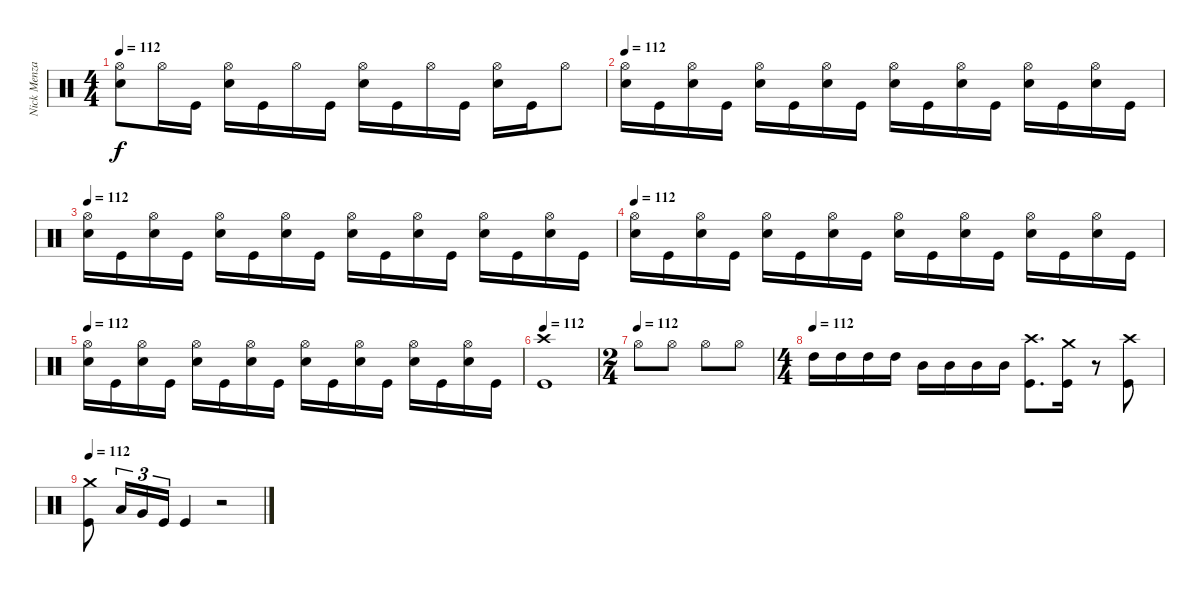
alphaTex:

\track ("Nick Menza" "Nick Menza") {instrument percussion}
\staff {score}
\articulation defaults
\ts (4 4)
\tempo 112
\clef neutral
\ks c
("Hi-Hat (open)" "Snare (hit) 2").8{dy f} "Hi-Hat (open)".16 "Kick (hit)".16 ("Hi-Hat (open)" "Snare (hit) 2").16 "Kick (hit)".16 "Hi-Hat (open)".16 "Kick (hit)".16 ("Hi-Hat (open)" "Snare (hit) 2").16 "Kick (hit)".16 "Hi-Hat (open)".16 "Kick (hit)".16 ("Hi-Hat (open)" "Snare (hit) 2").16 "Kick (hit)".16 "Hi-Hat (open)".8 |
\tempo 112
("Hi-Hat (open)" "Snare (hit) 2").16 "Kick (hit)".16 ("Hi-Hat (open)" "Snare (hit) 2").16 "Kick (hit)".16 ("Hi-Hat (open)" "Snare (hit) 2").16 "Kick (hit)".16 ("Hi-Hat (open)" "Snare (hit) 2").16 "Kick (hit)".16 ("Hi-Hat (open)" "Snare (hit) 2").16 "Kick (hit)".16 ("Hi-Hat (open)" "Snare (hit) 2").16 "Kick (hit)".16 ("Hi-Hat (open)" "Snare (hit) 2").16 "Kick (hit)".16 ("Hi-Hat (open)" "Snare (hit) 2").16 "Kick (hit)".16 |
\tempo 112
("Hi-Hat (open)" "Snare (hit) 2").16 "Kick (hit)".16 ("Hi-Hat (open)" "Snare (hit) 2").16 "Kick (hit)".16 ("Hi-Hat (open)" "Snare (hit) 2").16 "Kick (hit)".16 ("Hi-Hat (open)" "Snare (hit) 2").16 "Kick (hit)".16 ("Hi-Hat (open)" "Snare (hit) 2").16 "Kick (hit)".16 ("Hi-Hat (open)" "Snare (hit) 2").16 "Kick (hit)".16 ("Hi-Hat (open)" "Snare (hit) 2").16 "Kick (hit)".16 ("Hi-Hat (open)" "Snare (hit) 2").16 "Kick (hit)".16 |
\tempo 112
("Hi-Hat (open)" "Snare (hit) 2").16 "Kick (hit)".16 ("Hi-Hat (open)" "Snare (hit) 2").16 "Kick (hit)".16 ("Hi-Hat (open)" "Snare (hit) 2").16 "Kick (hit)".16 ("Hi-Hat (open)" "Snare (hit) 2").16 "Kick (hit)".16 ("Hi-Hat (open)" "Snare (hit) 2").16 "Kick (hit)".16 ("Hi-Hat (open)" "Snare (hit) 2").16 "Kick (hit)".16 ("Hi-Hat (open)" "Snare (hit) 2").16 "Kick (hit)".16 ("Hi-Hat (open)" "Snare (hit) 2").16 "Kick (hit)".16 |
\tempo 112
("Hi-Hat (open)" "Snare (hit) 2").16 "Kick (hit)".16 ("Hi-Hat (open)" "Snare (hit) 2").16 "Kick (hit)".16 ("Hi-Hat (open)" "Snare (hit) 2").16 "Kick (hit)".16 ("Hi-Hat (open)" "Snare (hit) 2").16 "Kick (hit)".16 ("Hi-Hat (open)" "Snare (hit) 2").16 "Kick (hit)".16 ("Hi-Hat (open)" "Snare (hit) 2").16 "Kick (hit)".16 ("Hi-Hat (open)" "Snare (hit) 2").16 "Kick (hit)".16 ("Hi-Hat (open)" "Snare (hit) 2").16 "Kick (hit)".16 |
\tempo 112
("Crash high (hit)" "Kick (hit)").1 |
\ts (2 4)
\tempo (112)
"Hi-Hat (open)".8 "Hi-Hat (open)".8 "Hi-Hat (open)".8 "Hi-Hat (open)".8 |
\ts (4 4)
\tempo (112)
"High Tom (hit)".16 "High Tom (hit)".16 "High Tom (hit)".16 "High Tom (hit)".16 "Mid Tom (hit)".16 "Mid Tom (hit)".16 "Mid Tom (hit)".16 "Mid Tom (hit)".16 ("Crash high (hit)" "Kick (hit)").8{d} ("Crash medium (hit)" "Kick (hit)").16 r.8 ("Crash high (hit)" "Kick (hit)").8 |
\tempo 112
("Crash medium (hit)" "Kick (hit)").8 "Low Floor Tom (hit)".16{tu (3 2)} "Very Low Tom (hit)".16{tu (3 2)} "Kick (hit)".16{tu (3 2)} "Kick (hit)".4 r.2
